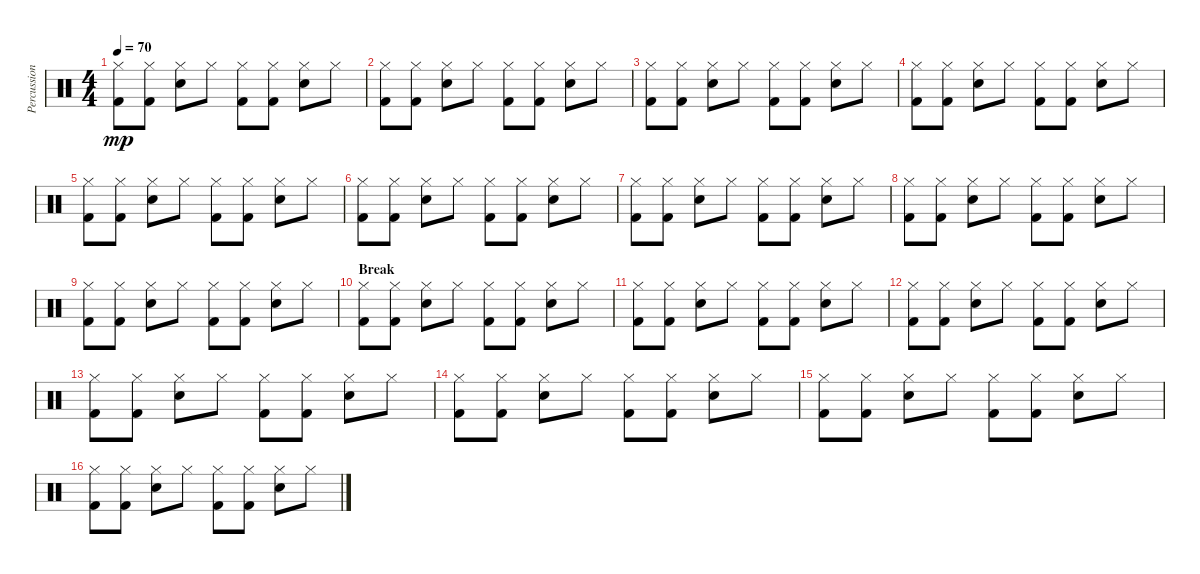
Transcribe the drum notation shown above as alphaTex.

\track ("Percussions" "Percussion") {instrument percussion}
\staff {score}
\articulation defaults
\ts (4 4)
\tempo 70
\clef neutral
\ks c
("Kick (hit) 2" "Hi-Hat (closed)").8{dy mp} ("Kick (hit) 2" "Hi-Hat (closed)").8 ("Electric Snare (hit)" "Hi-Hat (closed)").8 "Hi-Hat (closed)".8 ("Kick (hit) 2" "Hi-Hat (closed)").8 ("Kick (hit) 2" "Hi-Hat (closed)").8 ("Electric Snare (hit)" "Hi-Hat (closed)").8 "Hi-Hat (closed)".8 |
("Kick (hit) 2" "Hi-Hat (closed)").8 ("Kick (hit) 2" "Hi-Hat (closed)").8 ("Electric Snare (hit)" "Hi-Hat (closed)").8 "Hi-Hat (closed)".8 ("Kick (hit) 2" "Hi-Hat (closed)").8 ("Kick (hit) 2" "Hi-Hat (closed)").8 ("Electric Snare (hit)" "Hi-Hat (closed)").8 "Hi-Hat (closed)".8 |
("Kick (hit) 2" "Hi-Hat (closed)").8 ("Kick (hit) 2" "Hi-Hat (closed)").8 ("Electric Snare (hit)" "Hi-Hat (closed)").8 "Hi-Hat (closed)".8 ("Kick (hit) 2" "Hi-Hat (closed)").8 ("Kick (hit) 2" "Hi-Hat (closed)").8 ("Electric Snare (hit)" "Hi-Hat (closed)").8 "Hi-Hat (closed)".8 |
("Kick (hit) 2" "Hi-Hat (closed)").8 ("Kick (hit) 2" "Hi-Hat (closed)").8 ("Electric Snare (hit)" "Hi-Hat (closed)").8 "Hi-Hat (closed)".8 ("Kick (hit) 2" "Hi-Hat (closed)").8 ("Kick (hit) 2" "Hi-Hat (closed)").8 ("Electric Snare (hit)" "Hi-Hat (closed)").8 "Hi-Hat (closed)".8 |
("Kick (hit) 2" "Hi-Hat (closed)").8 ("Kick (hit) 2" "Hi-Hat (closed)").8 ("Electric Snare (hit)" "Hi-Hat (closed)").8 "Hi-Hat (closed)".8 ("Kick (hit) 2" "Hi-Hat (closed)").8 ("Kick (hit) 2" "Hi-Hat (closed)").8 ("Electric Snare (hit)" "Hi-Hat (closed)").8 "Hi-Hat (closed)".8 |
("Kick (hit) 2" "Hi-Hat (closed)").8 ("Kick (hit) 2" "Hi-Hat (closed)").8 ("Electric Snare (hit)" "Hi-Hat (closed)").8 "Hi-Hat (closed)".8 ("Kick (hit) 2" "Hi-Hat (closed)").8 ("Kick (hit) 2" "Hi-Hat (closed)").8 ("Electric Snare (hit)" "Hi-Hat (closed)").8 "Hi-Hat (closed)".8 |
("Kick (hit) 2" "Hi-Hat (closed)").8 ("Kick (hit) 2" "Hi-Hat (closed)").8 ("Electric Snare (hit)" "Hi-Hat (closed)").8 "Hi-Hat (closed)".8 ("Kick (hit) 2" "Hi-Hat (closed)").8 ("Kick (hit) 2" "Hi-Hat (closed)").8 ("Electric Snare (hit)" "Hi-Hat (closed)").8 "Hi-Hat (closed)".8 |
("Kick (hit) 2" "Hi-Hat (closed)").8 ("Kick (hit) 2" "Hi-Hat (closed)").8 ("Electric Snare (hit)" "Hi-Hat (closed)").8 "Hi-Hat (closed)".8 ("Kick (hit) 2" "Hi-Hat (closed)").8 ("Kick (hit) 2" "Hi-Hat (closed)").8 ("Electric Snare (hit)" "Hi-Hat (closed)").8 "Hi-Hat (closed)".8 |
("Kick (hit) 2" "Hi-Hat (closed)").8 ("Kick (hit) 2" "Hi-Hat (closed)").8 ("Electric Snare (hit)" "Hi-Hat (closed)").8 "Hi-Hat (closed)".8 ("Kick (hit) 2" "Hi-Hat (closed)").8 ("Kick (hit) 2" "Hi-Hat (closed)").8 ("Electric Snare (hit)" "Hi-Hat (closed)").8 "Hi-Hat (closed)".8 |
\section ("" "Break")
("Kick (hit) 2" "Hi-Hat (closed)").8 ("Kick (hit) 2" "Hi-Hat (closed)").8 ("Electric Snare (hit)" "Hi-Hat (closed)").8 "Hi-Hat (closed)".8 ("Kick (hit) 2" "Hi-Hat (closed)").8 ("Kick (hit) 2" "Hi-Hat (closed)").8 ("Electric Snare (hit)" "Hi-Hat (closed)").8 "Hi-Hat (closed)".8 |
("Kick (hit) 2" "Hi-Hat (closed)").8 ("Kick (hit) 2" "Hi-Hat (closed)").8 ("Electric Snare (hit)" "Hi-Hat (closed)").8 "Hi-Hat (closed)".8 ("Kick (hit) 2" "Hi-Hat (closed)").8 ("Kick (hit) 2" "Hi-Hat (closed)").8 ("Electric Snare (hit)" "Hi-Hat (closed)").8 "Hi-Hat (closed)".8 |
("Kick (hit) 2" "Hi-Hat (closed)").8 ("Kick (hit) 2" "Hi-Hat (closed)").8 ("Electric Snare (hit)" "Hi-Hat (closed)").8 "Hi-Hat (closed)".8 ("Kick (hit) 2" "Hi-Hat (closed)").8 ("Kick (hit) 2" "Hi-Hat (closed)").8 ("Electric Snare (hit)" "Hi-Hat (closed)").8 "Hi-Hat (closed)".8 |
("Kick (hit) 2" "Hi-Hat (closed)").8 ("Kick (hit) 2" "Hi-Hat (closed)").8 ("Electric Snare (hit)" "Hi-Hat (closed)").8 "Hi-Hat (closed)".8 ("Kick (hit) 2" "Hi-Hat (closed)").8 ("Kick (hit) 2" "Hi-Hat (closed)").8 ("Electric Snare (hit)" "Hi-Hat (closed)").8 "Hi-Hat (closed)".8 |
("Kick (hit) 2" "Hi-Hat (closed)").8 ("Kick (hit) 2" "Hi-Hat (closed)").8 ("Electric Snare (hit)" "Hi-Hat (closed)").8 "Hi-Hat (closed)".8 ("Kick (hit) 2" "Hi-Hat (closed)").8 ("Kick (hit) 2" "Hi-Hat (closed)").8 ("Electric Snare (hit)" "Hi-Hat (closed)").8 "Hi-Hat (closed)".8 |
("Kick (hit) 2" "Hi-Hat (closed)").8 ("Kick (hit) 2" "Hi-Hat (closed)").8 ("Electric Snare (hit)" "Hi-Hat (closed)").8 "Hi-Hat (closed)".8 ("Kick (hit) 2" "Hi-Hat (closed)").8 ("Kick (hit) 2" "Hi-Hat (closed)").8 ("Electric Snare (hit)" "Hi-Hat (closed)").8 "Hi-Hat (closed)".8 |
("Kick (hit) 2" "Hi-Hat (closed)").8 ("Kick (hit) 2" "Hi-Hat (closed)").8 ("Electric Snare (hit)" "Hi-Hat (closed)").8 "Hi-Hat (closed)".8 ("Kick (hit) 2" "Hi-Hat (closed)").8 ("Kick (hit) 2" "Hi-Hat (closed)").8 ("Electric Snare (hit)" "Hi-Hat (closed)").8 "Hi-Hat (closed)".8
